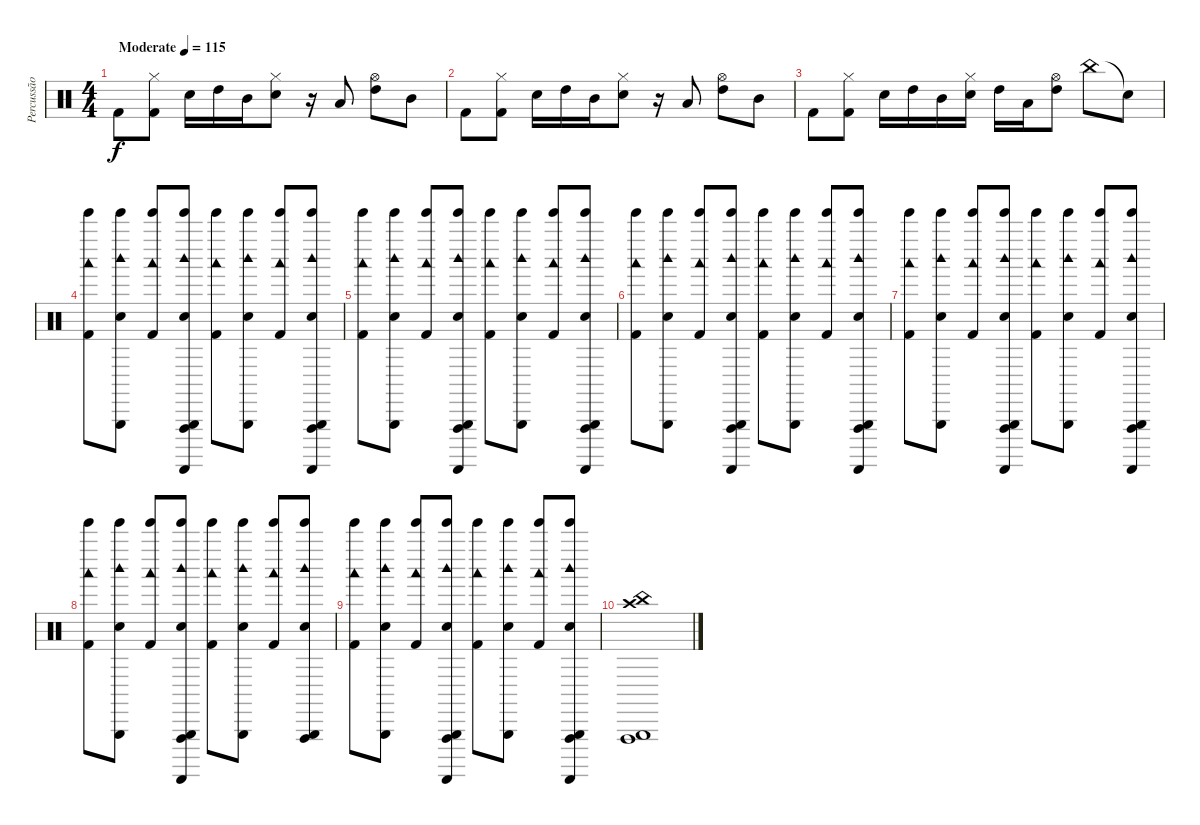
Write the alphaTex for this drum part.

\track ("Percussão" "Percussão") {instrument percussion}
\staff {score}
\articulation defaults
\ts (4 4)
\tempo (115 "Moderate")
\clef neutral
\ks c "Kick (hit) 2".8{dy f}
("Kick (hit) 2" "Hi-Hat (closed)").8 "Electric Snare (hit)".16 "High Tom (hit)".16 "Mid Tom (hit)".16 ("Electric Snare (hit)" "Hi-Hat (closed)").8 r.16 "Low Tom (hit)".8 ("High Tom (hit)" "Hi-Hat (open)").8 "Mid Tom (hit)".8 |
"Kick (hit) 2".8 ("Kick (hit) 2" "Hi-Hat (closed)").8 "Electric Snare (hit)".16 "High Tom (hit)".16 "Mid Tom (hit)".16 ("Electric Snare (hit)" "Hi-Hat (closed)").8 r.16 "Low Tom (hit)".8 ("High Tom (hit)" "Hi-Hat (open)").8 "Mid Tom (hit)".8 |
"Kick (hit) 2".8 ("Kick (hit) 2" "Hi-Hat (closed)").8 "Electric Snare (hit)".16 "High Tom (hit)".16 "Mid Tom (hit)".16 ("Electric Snare (hit)" "Hi-Hat (closed)").16 "High Tom (hit)".16 "Low Tom (hit)".16 ("High Tom (hit)" "Hi-Hat (open)").8 "China (hit)".8 "Snare (hit)"{t}.8 |
("Kick (hit) 2" "Tinkle Bell (hit)" "Woodblock low (hit)").8 ("Electric Snare (hit)" "Tinkle Bell (hit)" "Triangle (hit)" "Woodblock high (hit)").8 ("Kick (hit) 2" "Tinkle Bell (hit)" "Woodblock low (hit)").8 ("Electric Snare (hit)" "Tinkle Bell (hit)" "Triangle (hit)" "Woodblock high (hit)" "Vibraslap (hit)" "Guiro (scrap-return)").8 ("Kick (hit) 2" "Tinkle Bell (hit)" "Woodblock low (hit)").8 ("Electric Snare (hit)" "Tinkle Bell (hit)" "Triangle (hit)" "Woodblock high (hit)").8 ("Kick (hit) 2" "Tinkle Bell (hit)" "Woodblock low (hit)").8 ("Electric Snare (hit)" "Tinkle Bell (hit)" "Triangle (hit)" "Woodblock high (hit)" "Vibraslap (hit)" "Guiro (scrap-return)").8 |
("Kick (hit) 2" "Tinkle Bell (hit)" "Woodblock low (hit)").8 ("Electric Snare (hit)" "Tinkle Bell (hit)" "Triangle (hit)" "Woodblock high (hit)").8 ("Kick (hit) 2" "Tinkle Bell (hit)" "Woodblock low (hit)").8 ("Electric Snare (hit)" "Tinkle Bell (hit)" "Triangle (hit)" "Woodblock high (hit)" "Vibraslap (hit)" "Guiro (scrap-return)").8 ("Kick (hit) 2" "Tinkle Bell (hit)" "Woodblock low (hit)").8 ("Electric Snare (hit)" "Tinkle Bell (hit)" "Triangle (hit)" "Woodblock high (hit)").8 ("Kick (hit) 2" "Tinkle Bell (hit)" "Woodblock low (hit)").8 ("Electric Snare (hit)" "Tinkle Bell (hit)" "Triangle (hit)" "Woodblock high (hit)" "Vibraslap (hit)" "Guiro (scrap-return)").8 |
("Kick (hit) 2" "Tinkle Bell (hit)" "Woodblock low (hit)").8 ("Electric Snare (hit)" "Tinkle Bell (hit)" "Triangle (hit)" "Woodblock high (hit)").8 ("Kick (hit) 2" "Tinkle Bell (hit)" "Woodblock low (hit)").8 ("Electric Snare (hit)" "Tinkle Bell (hit)" "Triangle (hit)" "Woodblock high (hit)" "Vibraslap (hit)" "Guiro (scrap-return)").8 ("Kick (hit) 2" "Tinkle Bell (hit)" "Woodblock low (hit)").8 ("Electric Snare (hit)" "Tinkle Bell (hit)" "Triangle (hit)" "Woodblock high (hit)").8 ("Kick (hit) 2" "Tinkle Bell (hit)" "Woodblock low (hit)").8 ("Electric Snare (hit)" "Tinkle Bell (hit)" "Triangle (hit)" "Woodblock high (hit)" "Vibraslap (hit)" "Guiro (scrap-return)").8 |
("Kick (hit) 2" "Tinkle Bell (hit)" "Woodblock low (hit)").8 ("Electric Snare (hit)" "Tinkle Bell (hit)" "Triangle (hit)" "Woodblock high (hit)").8 ("Kick (hit) 2" "Tinkle Bell (hit)" "Woodblock low (hit)").8 ("Electric Snare (hit)" "Tinkle Bell (hit)" "Triangle (hit)" "Woodblock high (hit)" "Vibraslap (hit)" "Guiro (scrap-return)").8 ("Kick (hit) 2" "Tinkle Bell (hit)" "Woodblock low (hit)").8 ("Electric Snare (hit)" "Tinkle Bell (hit)" "Triangle (hit)" "Woodblock high (hit)").8 ("Kick (hit) 2" "Tinkle Bell (hit)" "Woodblock low (hit)").8 ("Electric Snare (hit)" "Tinkle Bell (hit)" "Triangle (hit)" "Woodblock high (hit)" "Vibraslap (hit)" "Guiro (scrap-return)").8 |
("Kick (hit) 2" "Tinkle Bell (hit)" "Woodblock low (hit)").8 ("Electric Snare (hit)" "Tinkle Bell (hit)" "Triangle (hit)" "Woodblock high (hit)").8 ("Kick (hit) 2" "Tinkle Bell (hit)" "Woodblock low (hit)").8 ("Electric Snare (hit)" "Tinkle Bell (hit)" "Triangle (hit)" "Woodblock high (hit)" "Vibraslap (hit)" "Guiro (scrap-return)").8 ("Kick (hit) 2" "Tinkle Bell (hit)" "Woodblock low (hit)").8 ("Electric Snare (hit)" "Tinkle Bell (hit)" "Triangle (hit)" "Woodblock high (hit)").8 ("Kick (hit) 2" "Tinkle Bell (hit)" "Woodblock low (hit)").8 ("Electric Snare (hit)" "Tinkle Bell (hit)" "Triangle (hit)" "Woodblock high (hit)" "Vibraslap (hit)").8 |
("Kick (hit) 2" "Tinkle Bell (hit)" "Woodblock low (hit)").8 ("Electric Snare (hit)" "Tinkle Bell (hit)" "Triangle (hit)" "Woodblock high (hit)").8 ("Kick (hit) 2" "Tinkle Bell (hit)" "Woodblock low (hit)").8 ("Electric Snare (hit)" "Tinkle Bell (hit)" "Triangle (hit)" "Woodblock high (hit)" "Vibraslap (hit)" "Guiro (scrap-return)").8 ("Kick (hit) 2" "Tinkle Bell (hit)" "Woodblock low (hit)").8 ("Electric Snare (hit)" "Tinkle Bell (hit)" "Triangle (hit)" "Woodblock high (hit)").8 ("Kick (hit) 2" "Tinkle Bell (hit)" "Woodblock low (hit)").8 ("Electric Snare (hit)" "Tinkle Bell (hit)" "Triangle (hit)" "Woodblock high (hit)" "Vibraslap (hit)" "Guiro (scrap-return)").8 |
("Crash high (hit)" "Vibraslap (hit)" "Triangle (hit)" "China (hit)").1
